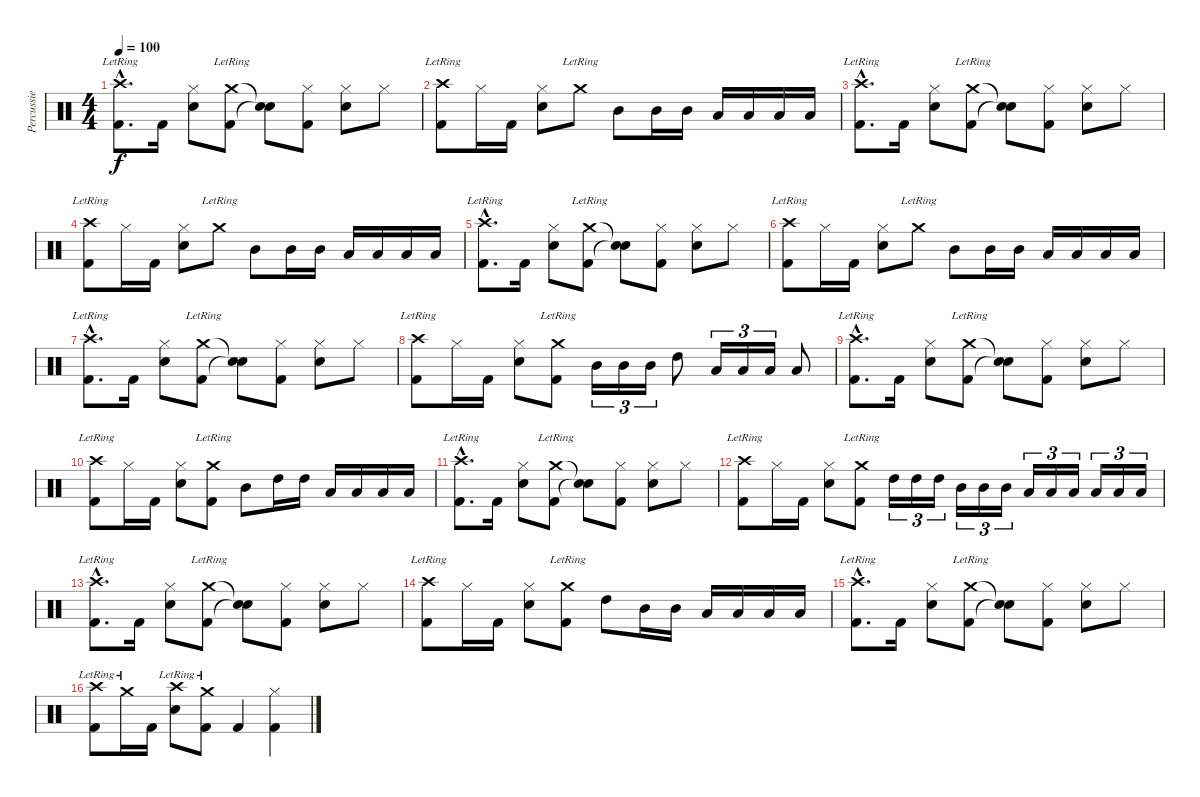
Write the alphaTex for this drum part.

\track ("Percussie" "Percussie") {instrument percussion}
\staff {score}
\articulation defaults
\ts (4 4)
\tempo 100
\clef neutral
\ks c
("Crash high (hit)"{hac lr} "Kick (hit) 2"{hac}).8{d dy f} "Kick (hit) 2".16 ("Hi-Hat (closed)" "Snare (hit) 2").8 ("Crash medium (hit)"{lr} "Kick (hit) 2").8 ("Snare (hit)"{t} "Snare (hit)"{t}).8 ("Hi-Hat (closed)" "Kick (hit) 2").8 ("Hi-Hat (closed)" "Snare (hit) 2").8 "Hi-Hat (closed)".8 |
("Crash high (hit)"{lr} "Kick (hit) 2").8 "Hi-Hat (closed)".16 "Kick (hit) 2".16 ("Hi-Hat (closed)" "Snare (hit) 2").8 "Crash medium (hit)"{lr}.8 "Mid Tom (hit)".8 "Mid Tom (hit)".16 "Mid Tom (hit)".16 "Low Tom (hit)".16 "Low Tom (hit)".16 "Low Tom (hit)".16 "Low Tom (hit)".16 |
("Crash high (hit)"{hac lr} "Kick (hit) 2"{hac}).8{d} "Kick (hit) 2".16 ("Hi-Hat (closed)" "Snare (hit) 2").8 ("Crash medium (hit)"{lr} "Kick (hit) 2").8 ("Snare (hit)"{t} "Snare (hit)"{t}).8 ("Hi-Hat (closed)" "Kick (hit) 2").8 ("Hi-Hat (closed)" "Snare (hit) 2").8 "Hi-Hat (closed)".8 |
("Crash high (hit)"{lr} "Kick (hit) 2").8 "Hi-Hat (closed)".16 "Kick (hit) 2".16 ("Hi-Hat (closed)" "Snare (hit) 2").8 "Crash medium (hit)"{lr}.8 "Mid Tom (hit)".8 "Mid Tom (hit)".16 "Mid Tom (hit)".16 "Low Tom (hit)".16 "Low Tom (hit)".16 "Low Tom (hit)".16 "Low Tom (hit)".16 |
("Crash high (hit)"{hac lr} "Kick (hit) 2"{hac}).8{d} "Kick (hit) 2".16 ("Hi-Hat (closed)" "Snare (hit) 2").8 ("Crash medium (hit)"{lr} "Kick (hit) 2").8 ("Snare (hit)"{t} "Snare (hit)"{t}).8 ("Hi-Hat (closed)" "Kick (hit) 2").8 ("Hi-Hat (closed)" "Snare (hit) 2").8 "Hi-Hat (closed)".8 |
("Crash high (hit)"{lr} "Kick (hit) 2").8 "Hi-Hat (closed)".16 "Kick (hit) 2".16 ("Hi-Hat (closed)" "Snare (hit) 2").8 "Crash medium (hit)"{lr}.8 "Mid Tom (hit)".8 "Mid Tom (hit)".16 "Mid Tom (hit)".16 "Low Tom (hit)".16 "Low Tom (hit)".16 "Low Tom (hit)".16 "Low Tom (hit)".16 |
("Crash high (hit)"{hac lr} "Kick (hit) 2"{hac}).8{d} "Kick (hit) 2".16 ("Hi-Hat (closed)" "Snare (hit) 2").8 ("Crash medium (hit)"{lr} "Kick (hit) 2").8 ("Snare (hit)"{t} "Snare (hit)"{t}).8 ("Hi-Hat (closed)" "Kick (hit) 2").8 ("Hi-Hat (closed)" "Snare (hit) 2").8 "Hi-Hat (closed)".8 |
("Crash high (hit)"{lr} "Kick (hit) 2").8 "Hi-Hat (closed)".16 "Kick (hit) 2".16 ("Hi-Hat (closed)" "Snare (hit) 2").8 ("Crash medium (hit)"{lr} "Kick (hit) 2").8 "Mid Tom (hit)".16{tu (3 2)} "Mid Tom (hit)".16{tu (3 2)} "Mid Tom (hit)".16{tu (3 2)} "High Tom (hit)".8 "Low Tom (hit)".16{tu (3 2)} "Low Tom (hit)".16{tu (3 2)} "Low Tom (hit)".16{tu (3 2)} "Low Tom (hit)".8 |
("Crash high (hit)"{hac lr} "Kick (hit) 2"{hac}).8{d} "Kick (hit) 2".16 ("Hi-Hat (closed)" "Snare (hit) 2").8 ("Crash medium (hit)"{lr} "Kick (hit) 2").8 ("Snare (hit)"{t} "Snare (hit)"{t}).8 ("Hi-Hat (closed)" "Kick (hit) 2").8 ("Hi-Hat (closed)" "Snare (hit) 2").8 "Hi-Hat (closed)".8 |
("Crash high (hit)"{lr} "Kick (hit) 2").8 "Hi-Hat (closed)".16 "Kick (hit) 2".16 ("Hi-Hat (closed)" "Snare (hit) 2").8 ("Crash medium (hit)"{lr} "Kick (hit) 2").8 "Mid Tom (hit)".8 "High Tom (hit)".16 "High Tom (hit)".16 "Low Tom (hit)".16 "Low Tom (hit)".16 "Low Tom (hit)".16 "Low Tom (hit)".16 |
("Crash high (hit)"{hac lr} "Kick (hit) 2"{hac}).8{d} "Kick (hit) 2".16 ("Hi-Hat (closed)" "Snare (hit) 2").8 ("Crash medium (hit)"{lr} "Kick (hit) 2").8 ("Snare (hit)"{t} "Snare (hit)"{t}).8 ("Hi-Hat (closed)" "Kick (hit) 2").8 ("Hi-Hat (closed)" "Snare (hit) 2").8 "Hi-Hat (closed)".8 |
("Crash high (hit)"{lr} "Kick (hit) 2").8 "Hi-Hat (closed)".16 "Kick (hit) 2".16 ("Hi-Hat (closed)" "Snare (hit) 2").8 ("Crash medium (hit)"{lr} "Kick (hit) 2").8 "High Tom (hit)".16{tu (3 2)} "High Tom (hit)".16{tu (3 2)} "High Tom (hit)".16{tu (3 2)} "Mid Tom (hit)".16{tu (3 2)} "Mid Tom (hit)".16{tu (3 2)} "Mid Tom (hit)".16{tu (3 2)} "Low Tom (hit)".16{tu (3 2)} "Low Tom (hit)".16{tu (3 2)} "Low Tom (hit)".16{tu (3 2)} "Low Tom (hit)".16{tu (3 2)} "Low Tom (hit)".16{tu (3 2)} "Low Tom (hit)".16{tu (3 2)} |
("Crash high (hit)"{hac lr} "Kick (hit) 2"{hac}).8{d} "Kick (hit) 2".16 ("Hi-Hat (closed)" "Snare (hit) 2").8 ("Crash medium (hit)"{lr} "Kick (hit) 2").8 ("Snare (hit)"{t} "Snare (hit)"{t}).8 ("Hi-Hat (closed)" "Kick (hit) 2").8 ("Hi-Hat (closed)" "Snare (hit) 2").8 "Hi-Hat (closed)".8 |
("Crash high (hit)"{lr} "Kick (hit) 2").8 "Hi-Hat (closed)".16 "Kick (hit) 2".16 ("Hi-Hat (closed)" "Snare (hit) 2").8 ("Crash medium (hit)"{lr} "Kick (hit) 2").8 "High Tom (hit)".8 "Mid Tom (hit)".16 "Mid Tom (hit)".16 "Low Tom (hit)".16 "Low Tom (hit)".16 "Low Tom (hit)".16 "Low Tom (hit)".16 |
("Crash high (hit)"{hac lr} "Kick (hit) 2"{hac}).8{d} "Kick (hit) 2".16 ("Hi-Hat (closed)" "Snare (hit) 2").8 ("Crash medium (hit)"{lr} "Kick (hit) 2").8 ("Snare (hit)"{t} "Snare (hit)"{t}).8 ("Hi-Hat (closed)" "Kick (hit) 2").8 ("Hi-Hat (closed)" "Snare (hit) 2").8 "Hi-Hat (closed)".8 |
("Crash high (hit)"{lr} "Kick (hit) 2").8 "Crash medium (hit)"{lr}.16 "Kick (hit) 2".16 ("Crash high (hit)"{lr} "Snare (hit) 2").8 ("Crash medium (hit)"{lr} "Kick (hit) 2").8 "Kick (hit) 2".4 ("Hi-Hat (closed)" "Kick (hit) 2").4
